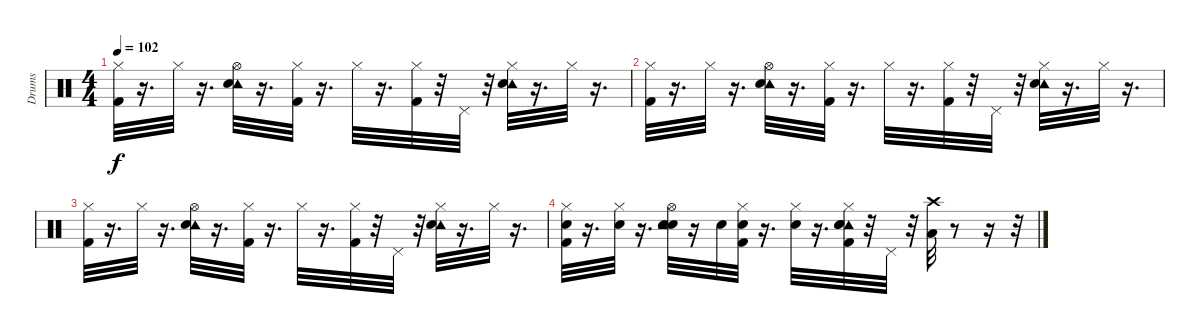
\track ("Drums" "Drums") {instrument percussion}
\staff {score}
\articulation defaults
\ts (4 4)
\tempo 102
\clef neutral
\ks c
("Hi-Hat (closed)" "Kick (hit) 2").32{dy f} r.16{d} "Hi-Hat (closed)".32 r.16{d} ("Tambourine (hit)" "Hi-Hat (open)" "Electric Snare (hit)").32 r.16{d} ("Hi-Hat (closed)" "Kick (hit) 2").32 r.16{d} "Hi-Hat (closed)".32 r.16{d} ("Hi-Hat (closed)" "Kick (hit) 2").32 r.32 "Pedal Hi-Hat (hit)".32 r.32 ("Tambourine (hit)" "Hi-Hat (closed)" "Electric Snare (hit)").32 r.16{d} "Hi-Hat (closed)".32 r.16{d} |
("Hi-Hat (closed)" "Kick (hit) 2").32 r.16{d} "Hi-Hat (closed)".32 r.16{d} ("Tambourine (hit)" "Hi-Hat (open)" "Electric Snare (hit)").32 r.16{d} ("Hi-Hat (closed)" "Kick (hit) 2").32 r.16{d} "Hi-Hat (closed)".32 r.16{d} ("Hi-Hat (closed)" "Kick (hit) 2").32 r.32 "Pedal Hi-Hat (hit)".32 r.32 ("Tambourine (hit)" "Hi-Hat (closed)" "Electric Snare (hit)").32 r.16{d} "Hi-Hat (closed)".32 r.16{d} |
("Hi-Hat (closed)" "Kick (hit) 2").32 r.16{d} "Hi-Hat (closed)".32 r.16{d} ("Tambourine (hit)" "Hi-Hat (open)" "Electric Snare (hit)").32 r.16{d} ("Hi-Hat (closed)" "Kick (hit) 2").32 r.16{d} "Hi-Hat (closed)".32 r.16{d} ("Hi-Hat (closed)" "Kick (hit) 2").32 r.32 "Pedal Hi-Hat (hit)".32 r.32 ("Tambourine (hit)" "Hi-Hat (closed)" "Electric Snare (hit)").32 r.16{d} "Hi-Hat (closed)".32 r.16{d} |
("Snare (hit) 2" "Hi-Hat (closed)" "Kick (hit) 2").32 r.16{d} ("Snare (hit) 2" "Hi-Hat (closed)").32 r.16{d} ("Snare (hit) 2" "Tambourine (hit)" "Hi-Hat (open)" "Electric Snare (hit)").32 r.16 "Snare (hit) 2".32 ("Snare (hit) 2" "Hi-Hat (closed)" "Kick (hit) 2").32 r.16{d} ("Snare (hit) 2" "Hi-Hat (closed)").32 r.16{d} ("Tambourine (hit)" "Electric Snare (hit)" "Snare (hit) 2" "Hi-Hat (closed)" "Kick (hit) 2").32 r.32 "Pedal Hi-Hat (hit)".32 r.32 ("Low Floor Tom (hit)" "Crash high (hit)").32 r.8 r.16 r.32
